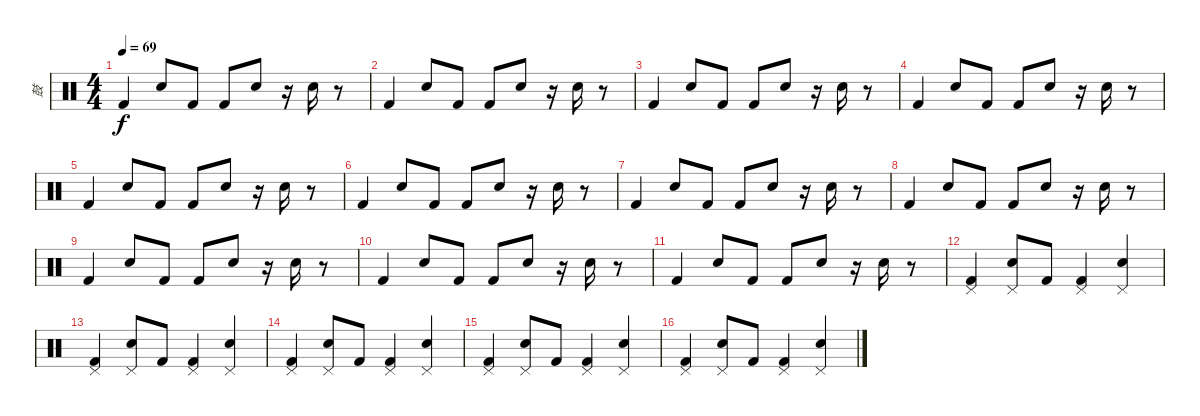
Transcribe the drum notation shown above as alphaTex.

\track ("鼓" "鼓") {instrument percussion}
\staff {score}
\articulation defaults
\ts (4 4)
\tempo 69
\clef neutral
\ks c "Kick (hit) 2".4{dy f} "Snare (hit) 2".8 "Kick (hit) 2".8 "Kick (hit) 2".8 "Snare (hit) 2".8
r.16 "Snare (hit) 2".16 r.8 |
"Kick (hit) 2".4 "Snare (hit) 2".8 "Kick (hit) 2".8 "Kick (hit) 2".8 "Snare (hit) 2".8 r.16 "Snare (hit) 2".16 r.8 |
"Kick (hit) 2".4 "Snare (hit) 2".8 "Kick (hit) 2".8 "Kick (hit) 2".8 "Snare (hit) 2".8 r.16 "Snare (hit) 2".16 r.8 |
"Kick (hit) 2".4 "Snare (hit) 2".8 "Kick (hit) 2".8 "Kick (hit) 2".8 "Snare (hit) 2".8 r.16 "Snare (hit) 2".16 r.8 |
"Kick (hit) 2".4 "Snare (hit) 2".8 "Kick (hit) 2".8 "Kick (hit) 2".8 "Snare (hit) 2".8 r.16 "Snare (hit) 2".16 r.8 |
"Kick (hit) 2".4 "Snare (hit) 2".8 "Kick (hit) 2".8 "Kick (hit) 2".8 "Snare (hit) 2".8 r.16 "Snare (hit) 2".16 r.8 |
"Kick (hit) 2".4 "Snare (hit) 2".8 "Kick (hit) 2".8 "Kick (hit) 2".8 "Snare (hit) 2".8 r.16 "Snare (hit) 2".16 r.8 |
"Kick (hit) 2".4 "Snare (hit) 2".8 "Kick (hit) 2".8 "Kick (hit) 2".8 "Snare (hit) 2".8 r.16 "Snare (hit) 2".16 r.8 |
"Kick (hit) 2".4 "Snare (hit) 2".8 "Kick (hit) 2".8 "Kick (hit) 2".8 "Snare (hit) 2".8 r.16 "Snare (hit) 2".16 r.8 |
"Kick (hit) 2".4 "Snare (hit) 2".8 "Kick (hit) 2".8 "Kick (hit) 2".8 "Snare (hit) 2".8 r.16 "Snare (hit) 2".16 r.8 |
"Kick (hit) 2".4 "Snare (hit) 2".8 "Kick (hit) 2".8 "Kick (hit) 2".8 "Snare (hit) 2".8 r.16 "Snare (hit) 2".16 r.8 |
("Pedal Hi-Hat (hit)" "Kick (hit) 2").4 ("Pedal Hi-Hat (hit)" "Snare (hit) 2").8 "Kick (hit) 2".8 ("Pedal Hi-Hat (hit)" "Kick (hit) 2").4 ("Pedal Hi-Hat (hit)" "Snare (hit) 2").4 |
("Pedal Hi-Hat (hit)" "Kick (hit) 2").4 ("Pedal Hi-Hat (hit)" "Snare (hit) 2").8 "Kick (hit) 2".8 ("Pedal Hi-Hat (hit)" "Kick (hit) 2").4 ("Pedal Hi-Hat (hit)" "Snare (hit) 2").4 |
("Pedal Hi-Hat (hit)" "Kick (hit) 2").4 ("Pedal Hi-Hat (hit)" "Snare (hit) 2").8 "Kick (hit) 2".8 ("Pedal Hi-Hat (hit)" "Kick (hit) 2").4 ("Pedal Hi-Hat (hit)" "Snare (hit) 2").4 |
("Pedal Hi-Hat (hit)" "Kick (hit) 2").4 ("Pedal Hi-Hat (hit)" "Snare (hit) 2").8 "Kick (hit) 2".8 ("Pedal Hi-Hat (hit)" "Kick (hit) 2").4 ("Pedal Hi-Hat (hit)" "Snare (hit) 2").4 |
("Pedal Hi-Hat (hit)" "Kick (hit) 2").4 ("Pedal Hi-Hat (hit)" "Snare (hit) 2").8 "Kick (hit) 2".8 ("Pedal Hi-Hat (hit)" "Kick (hit) 2").4 ("Pedal Hi-Hat (hit)" "Snare (hit) 2").4
